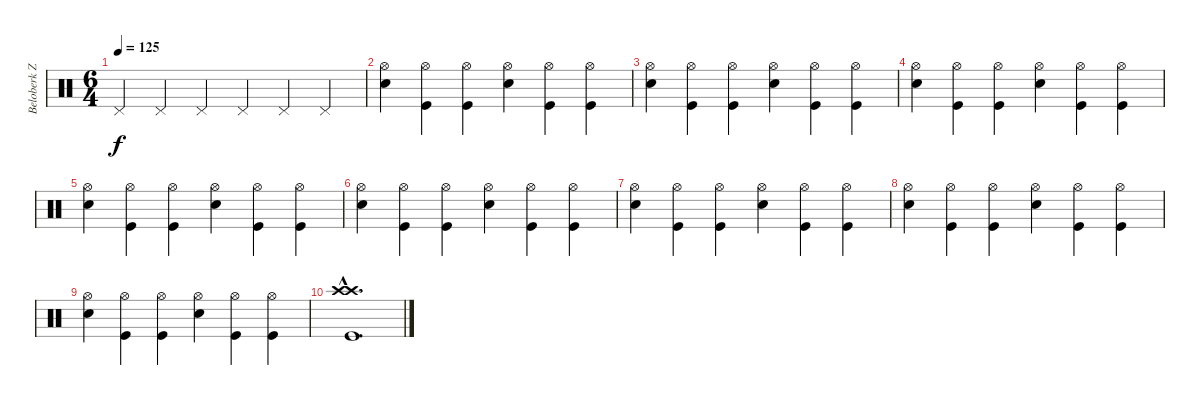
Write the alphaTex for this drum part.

\track ("Beloberk Zsolt" "Beloberk Z") {instrument percussion}
\staff {score}
\articulation defaults
\ts (6 4)
\tempo 125
\clef neutral
\ks c "Pedal Hi-Hat (hit)".4{dy f} "Pedal Hi-Hat (hit)".4 "Pedal Hi-Hat (hit)".4 "Pedal Hi-Hat (hit)".4 "Pedal Hi-Hat (hit)".4 "Pedal Hi-Hat (hit)".4
|
("Hi-Hat (open)" "Snare (hit) 2").4 ("Hi-Hat (open)" "Kick (hit)").4 ("Hi-Hat (open)" "Kick (hit)").4 ("Hi-Hat (open)" "Snare (hit) 2").4 ("Hi-Hat (open)" "Kick (hit)").4 ("Hi-Hat (open)" "Kick (hit)").4 |
("Hi-Hat (open)" "Snare (hit) 2").4 ("Hi-Hat (open)" "Kick (hit)").4 ("Hi-Hat (open)" "Kick (hit)").4 ("Hi-Hat (open)" "Snare (hit) 2").4 ("Hi-Hat (open)" "Kick (hit)").4 ("Hi-Hat (open)" "Kick (hit)").4 |
("Hi-Hat (open)" "Snare (hit) 2").4 ("Hi-Hat (open)" "Kick (hit)").4 ("Hi-Hat (open)" "Kick (hit)").4 ("Hi-Hat (open)" "Snare (hit) 2").4 ("Hi-Hat (open)" "Kick (hit)").4 ("Hi-Hat (open)" "Kick (hit)").4 |
("Hi-Hat (open)" "Snare (hit) 2").4 ("Hi-Hat (open)" "Kick (hit)").4 ("Hi-Hat (open)" "Kick (hit)").4 ("Hi-Hat (open)" "Snare (hit) 2").4 ("Hi-Hat (open)" "Kick (hit)").4 ("Hi-Hat (open)" "Kick (hit)").4 |
("Hi-Hat (open)" "Snare (hit) 2").4 ("Hi-Hat (open)" "Kick (hit)").4 ("Hi-Hat (open)" "Kick (hit)").4 ("Hi-Hat (open)" "Snare (hit) 2").4 ("Hi-Hat (open)" "Kick (hit)").4 ("Hi-Hat (open)" "Kick (hit)").4 |
("Hi-Hat (open)" "Snare (hit) 2").4 ("Hi-Hat (open)" "Kick (hit)").4 ("Hi-Hat (open)" "Kick (hit)").4 ("Hi-Hat (open)" "Snare (hit) 2").4 ("Hi-Hat (open)" "Kick (hit)").4 ("Hi-Hat (open)" "Kick (hit)").4 |
("Hi-Hat (open)" "Snare (hit) 2").4 ("Hi-Hat (open)" "Kick (hit)").4 ("Hi-Hat (open)" "Kick (hit)").4 ("Hi-Hat (open)" "Snare (hit) 2").4 ("Hi-Hat (open)" "Kick (hit)").4 ("Hi-Hat (open)" "Kick (hit)").4 |
("Hi-Hat (open)" "Snare (hit) 2").4 ("Hi-Hat (open)" "Kick (hit)").4 ("Hi-Hat (open)" "Kick (hit)").4 ("Hi-Hat (open)" "Snare (hit) 2").4 ("Hi-Hat (open)" "Kick (hit)").4 ("Hi-Hat (open)" "Kick (hit)").4 |
("Crash high (hit)"{hac} "Crash high (hit)"{hac} "Kick (hit)"{hac}).1{d}
